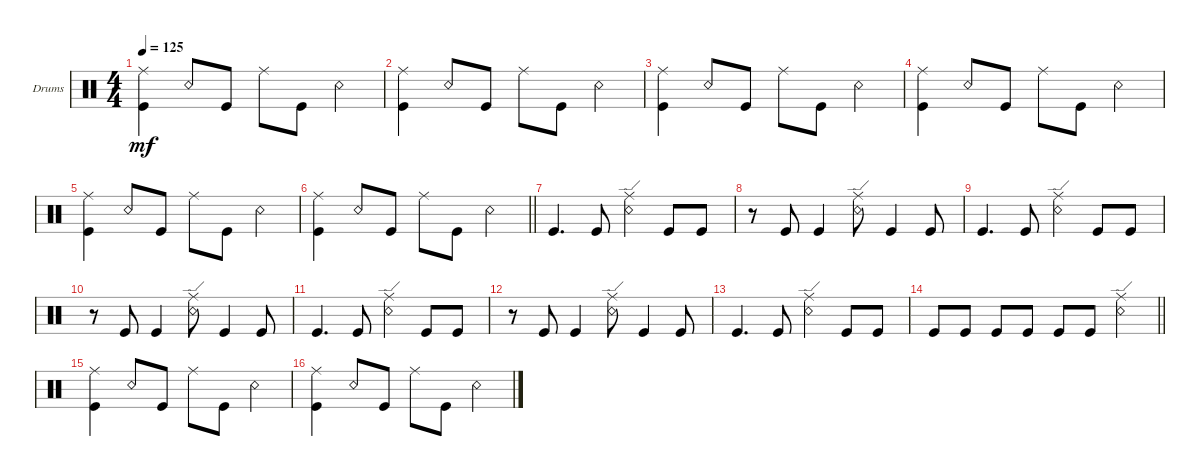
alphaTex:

\defaultSystemsLayout 4
\bracketExtendMode groupsimilarinstruments
\firstSystemTrackNameOrientation horizontal
\otherSystemsTrackNameOrientation horizontal
\track ("Drumkit" "Drums") {instrument percussion}
\staff {score}
\articulation defaults
\ts (4 4)
\tempo 125
\clef neutral
\ks c
("Kick (hit)" "Ride (middle)").4{dy mf} "Snare (rim shot)".8 "Kick (hit)".8 "Ride (middle)".8 "Kick (hit)".8 "Snare (rim shot)".4 |
("Kick (hit)" "Ride (middle)").4 "Snare (rim shot)".8 "Kick (hit)".8 "Ride (middle)".8 "Kick (hit)".8 "Snare (rim shot)".4 |
("Kick (hit)" "Ride (middle)").4 "Snare (rim shot)".8 "Kick (hit)".8 "Ride (middle)".8 "Kick (hit)".8 "Snare (rim shot)".4 |
("Kick (hit)" "Ride (middle)").4 "Snare (rim shot)".8 "Kick (hit)".8 "Ride (middle)".8 "Kick (hit)".8 "Snare (rim shot)".4 |
("Kick (hit)" "Ride (middle)").4 "Snare (rim shot)".8 "Kick (hit)".8 "Ride (middle)".8 "Kick (hit)".8 "Snare (rim shot)".4 |
\barLineRight lightlight
("Kick (hit)" "Ride (middle)").4 "Snare (rim shot)".8 "Kick (hit)".8 "Ride (middle)".8 "Kick (hit)".8 "Snare (rim shot)".4 |
"Kick (hit)".4{d} "Kick (hit)".8 ("Snare (rim shot)" "Ride (edge)").4 "Kick (hit)".8 "Kick (hit)".8 |
r.8 "Kick (hit)".8 "Kick (hit)".4 ("Snare (rim shot)" "Ride (edge)").8 "Kick (hit)".4 "Kick (hit)".8 |
"Kick (hit)".4{d} "Kick (hit)".8 ("Snare (rim shot)" "Ride (edge)").4 "Kick (hit)".8 "Kick (hit)".8 |
r.8 "Kick (hit)".8 "Kick (hit)".4 ("Snare (rim shot)" "Ride (edge)").8 "Kick (hit)".4 "Kick (hit)".8 |
"Kick (hit)".4{d} "Kick (hit)".8 ("Snare (rim shot)" "Ride (edge)").4 "Kick (hit)".8 "Kick (hit)".8 |
r.8 "Kick (hit)".8 "Kick (hit)".4 ("Snare (rim shot)" "Ride (edge)").8 "Kick (hit)".4 "Kick (hit)".8 |
"Kick (hit)".4{d} "Kick (hit)".8 ("Snare (rim shot)" "Ride (edge)").4 "Kick (hit)".8 "Kick (hit)".8 |
\barLineRight lightlight "Kick (hit)".8 "Kick (hit)".8 "Kick (hit)".8 "Kick (hit)".8 "Kick (hit)".8 "Kick (hit)".8
("Snare (rim shot)" "Ride (edge)").4 |
("Kick (hit)" "Ride (middle)").4 "Snare (rim shot)".8 "Kick (hit)".8 "Ride (middle)".8 "Kick (hit)".8 "Snare (rim shot)".4 |
("Kick (hit)" "Ride (middle)").4 "Snare (rim shot)".8 "Kick (hit)".8 "Ride (middle)".8 "Kick (hit)".8 "Snare (rim shot)".4
